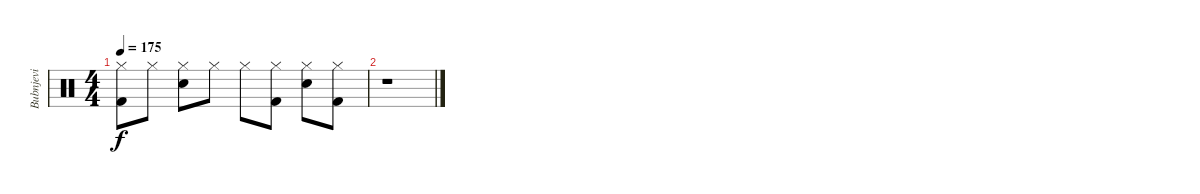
\track ("Bubnjevi" "Bubnjevi") {instrument percussion}
\staff {score}
\articulation defaults
\ts (4 4)
\tempo 175
\clef neutral
\ks c
("Hi-Hat (closed)" "Kick (hit) 2").8{dy f} "Hi-Hat (closed)".8 ("Electric Snare (hit)" "Hi-Hat (closed)").8 "Hi-Hat (closed)".8 "Hi-Hat (closed)".8 ("Hi-Hat (closed)" "Kick (hit) 2").8 ("Electric Snare (hit)" "Hi-Hat (closed)").8 ("Hi-Hat (closed)" "Kick (hit) 2").8 |
r.1
